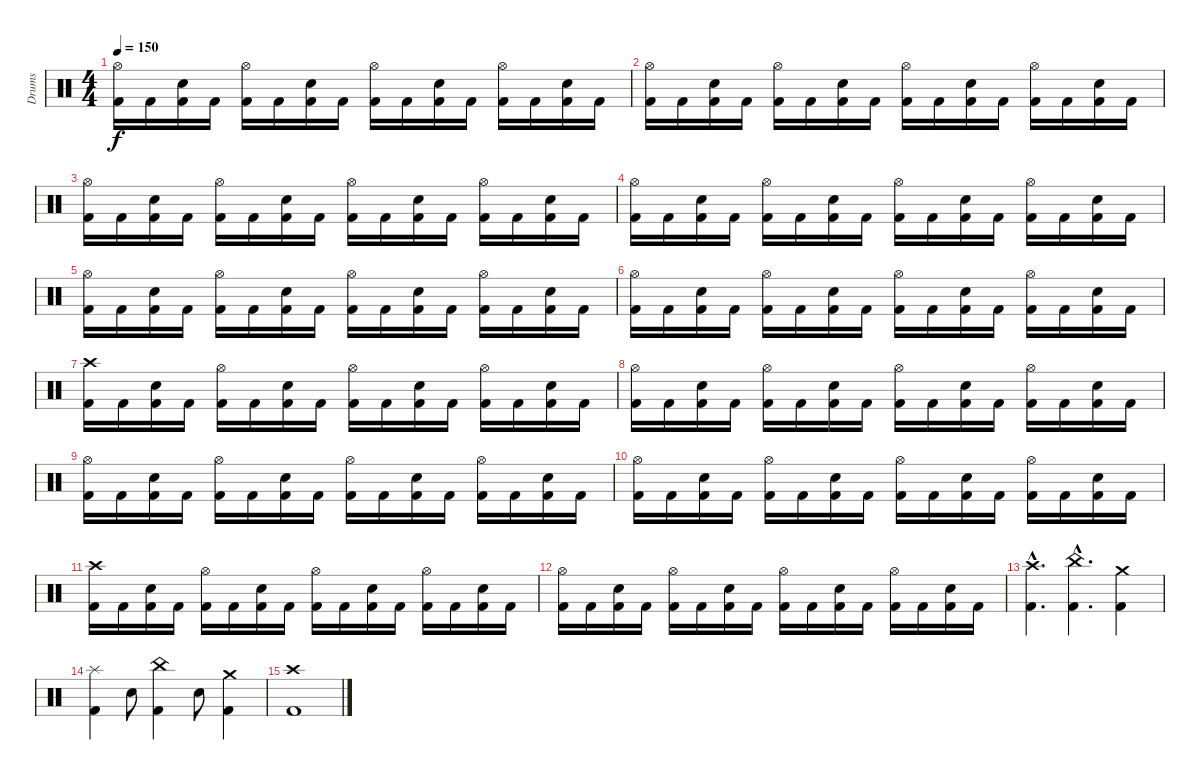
\track ("Drums" "Drums") {instrument percussion}
\staff {score}
\articulation defaults
\ts (4 4)
\tempo 150
\clef neutral
\ks c
("Hi-Hat (open)" "Kick (hit) 2").16{dy f} "Kick (hit) 2".16 ("Electric Snare (hit)" "Kick (hit) 2").16 "Kick (hit) 2".16 ("Hi-Hat (open)" "Kick (hit) 2").16 "Kick (hit) 2".16 ("Electric Snare (hit)" "Kick (hit) 2").16 "Kick (hit) 2".16 ("Hi-Hat (open)" "Kick (hit) 2").16 "Kick (hit) 2".16 ("Electric Snare (hit)" "Kick (hit) 2").16 "Kick (hit) 2".16 ("Hi-Hat (open)" "Kick (hit) 2").16 "Kick (hit) 2".16 ("Electric Snare (hit)" "Kick (hit) 2").16 "Kick (hit) 2".16 |
("Hi-Hat (open)" "Kick (hit) 2").16 "Kick (hit) 2".16 ("Electric Snare (hit)" "Kick (hit) 2").16 "Kick (hit) 2".16 ("Hi-Hat (open)" "Kick (hit) 2").16 "Kick (hit) 2".16 ("Electric Snare (hit)" "Kick (hit) 2").16 "Kick (hit) 2".16 ("Hi-Hat (open)" "Kick (hit) 2").16 "Kick (hit) 2".16 ("Electric Snare (hit)" "Kick (hit) 2").16 "Kick (hit) 2".16 ("Hi-Hat (open)" "Kick (hit) 2").16 "Kick (hit) 2".16 ("Electric Snare (hit)" "Kick (hit) 2").16 "Kick (hit) 2".16 |
("Hi-Hat (open)" "Kick (hit) 2").16 "Kick (hit) 2".16 ("Electric Snare (hit)" "Kick (hit) 2").16 "Kick (hit) 2".16 ("Hi-Hat (open)" "Kick (hit) 2").16 "Kick (hit) 2".16 ("Electric Snare (hit)" "Kick (hit) 2").16 "Kick (hit) 2".16 ("Hi-Hat (open)" "Kick (hit) 2").16 "Kick (hit) 2".16 ("Electric Snare (hit)" "Kick (hit) 2").16 "Kick (hit) 2".16 ("Hi-Hat (open)" "Kick (hit) 2").16 "Kick (hit) 2".16 ("Electric Snare (hit)" "Kick (hit) 2").16 "Kick (hit) 2".16 |
("Hi-Hat (open)" "Kick (hit) 2").16 "Kick (hit) 2".16 ("Electric Snare (hit)" "Kick (hit) 2").16 "Kick (hit) 2".16 ("Hi-Hat (open)" "Kick (hit) 2").16 "Kick (hit) 2".16 ("Electric Snare (hit)" "Kick (hit) 2").16 "Kick (hit) 2".16 ("Hi-Hat (open)" "Kick (hit) 2").16 "Kick (hit) 2".16 ("Electric Snare (hit)" "Kick (hit) 2").16 "Kick (hit) 2".16 ("Hi-Hat (open)" "Kick (hit) 2").16 "Kick (hit) 2".16 ("Electric Snare (hit)" "Kick (hit) 2").16 "Kick (hit) 2".16 |
("Hi-Hat (open)" "Kick (hit) 2").16 "Kick (hit) 2".16 ("Electric Snare (hit)" "Kick (hit) 2").16 "Kick (hit) 2".16 ("Hi-Hat (open)" "Kick (hit) 2").16 "Kick (hit) 2".16 ("Electric Snare (hit)" "Kick (hit) 2").16 "Kick (hit) 2".16 ("Hi-Hat (open)" "Kick (hit) 2").16 "Kick (hit) 2".16 ("Electric Snare (hit)" "Kick (hit) 2").16 "Kick (hit) 2".16 ("Hi-Hat (open)" "Kick (hit) 2").16 "Kick (hit) 2".16 ("Electric Snare (hit)" "Kick (hit) 2").16 "Kick (hit) 2".16 |
("Hi-Hat (open)" "Kick (hit) 2").16 "Kick (hit) 2".16 ("Electric Snare (hit)" "Kick (hit) 2").16 "Kick (hit) 2".16 ("Hi-Hat (open)" "Kick (hit) 2").16 "Kick (hit) 2".16 ("Electric Snare (hit)" "Kick (hit) 2").16 "Kick (hit) 2".16 ("Hi-Hat (open)" "Kick (hit) 2").16 "Kick (hit) 2".16 ("Electric Snare (hit)" "Kick (hit) 2").16 "Kick (hit) 2".16 ("Hi-Hat (open)" "Kick (hit) 2").16 "Kick (hit) 2".16 ("Electric Snare (hit)" "Kick (hit) 2").16 "Kick (hit) 2".16 |
("Crash high (hit)" "Kick (hit) 2").16 "Kick (hit) 2".16 ("Electric Snare (hit)" "Kick (hit) 2").16 "Kick (hit) 2".16 ("Hi-Hat (open)" "Kick (hit) 2").16 "Kick (hit) 2".16 ("Electric Snare (hit)" "Kick (hit) 2").16 "Kick (hit) 2".16 ("Hi-Hat (open)" "Kick (hit) 2").16 "Kick (hit) 2".16 ("Electric Snare (hit)" "Kick (hit) 2").16 "Kick (hit) 2".16 ("Hi-Hat (open)" "Kick (hit) 2").16 "Kick (hit) 2".16 ("Electric Snare (hit)" "Kick (hit) 2").16 "Kick (hit) 2".16 |
("Hi-Hat (open)" "Kick (hit) 2").16 "Kick (hit) 2".16 ("Electric Snare (hit)" "Kick (hit) 2").16 "Kick (hit) 2".16 ("Hi-Hat (open)" "Kick (hit) 2").16 "Kick (hit) 2".16 ("Electric Snare (hit)" "Kick (hit) 2").16 "Kick (hit) 2".16 ("Hi-Hat (open)" "Kick (hit) 2").16 "Kick (hit) 2".16 ("Electric Snare (hit)" "Kick (hit) 2").16 "Kick (hit) 2".16 ("Hi-Hat (open)" "Kick (hit) 2").16 "Kick (hit) 2".16 ("Electric Snare (hit)" "Kick (hit) 2").16 "Kick (hit) 2".16 |
("Hi-Hat (open)" "Kick (hit) 2").16 "Kick (hit) 2".16 ("Electric Snare (hit)" "Kick (hit) 2").16 "Kick (hit) 2".16 ("Hi-Hat (open)" "Kick (hit) 2").16 "Kick (hit) 2".16 ("Electric Snare (hit)" "Kick (hit) 2").16 "Kick (hit) 2".16 ("Hi-Hat (open)" "Kick (hit) 2").16 "Kick (hit) 2".16 ("Electric Snare (hit)" "Kick (hit) 2").16 "Kick (hit) 2".16 ("Hi-Hat (open)" "Kick (hit) 2").16 "Kick (hit) 2".16 ("Electric Snare (hit)" "Kick (hit) 2").16 "Kick (hit) 2".16 |
("Hi-Hat (open)" "Kick (hit) 2").16 "Kick (hit) 2".16 ("Electric Snare (hit)" "Kick (hit) 2").16 "Kick (hit) 2".16 ("Hi-Hat (open)" "Kick (hit) 2").16 "Kick (hit) 2".16 ("Electric Snare (hit)" "Kick (hit) 2").16 "Kick (hit) 2".16 ("Hi-Hat (open)" "Kick (hit) 2").16 "Kick (hit) 2".16 ("Electric Snare (hit)" "Kick (hit) 2").16 "Kick (hit) 2".16 ("Hi-Hat (open)" "Kick (hit) 2").16 "Kick (hit) 2".16 ("Electric Snare (hit)" "Kick (hit) 2").16 "Kick (hit) 2".16 |
("Crash high (hit)" "Kick (hit) 2").16 "Kick (hit) 2".16 ("Electric Snare (hit)" "Kick (hit) 2").16 "Kick (hit) 2".16 ("Hi-Hat (open)" "Kick (hit) 2").16 "Kick (hit) 2".16 ("Electric Snare (hit)" "Kick (hit) 2").16 "Kick (hit) 2".16 ("Hi-Hat (open)" "Kick (hit) 2").16 "Kick (hit) 2".16 ("Electric Snare (hit)" "Kick (hit) 2").16 "Kick (hit) 2".16 ("Hi-Hat (open)" "Kick (hit) 2").16 "Kick (hit) 2".16 ("Electric Snare (hit)" "Kick (hit) 2").16 "Kick (hit) 2".16 |
("Hi-Hat (open)" "Kick (hit) 2").16 "Kick (hit) 2".16 ("Electric Snare (hit)" "Kick (hit) 2").16 "Kick (hit) 2".16 ("Hi-Hat (open)" "Kick (hit) 2").16 "Kick (hit) 2".16 ("Electric Snare (hit)" "Kick (hit) 2").16 "Kick (hit) 2".16 ("Hi-Hat (open)" "Kick (hit) 2").16 "Kick (hit) 2".16 ("Electric Snare (hit)" "Kick (hit) 2").16 "Kick (hit) 2".16 ("Hi-Hat (open)" "Kick (hit) 2").16 "Kick (hit) 2".16 ("Electric Snare (hit)" "Kick (hit) 2").16 "Kick (hit) 2".16 |
("Crash high (hit)"{hac} "Kick (hit) 2"{hac}).4{d} ("China (hit)"{hac} "Kick (hit) 2"{hac}).4{d} ("Crash medium (hit)" "Kick (hit) 2").4 |
("Splash (hit)" "Kick (hit) 2").4 "Electric Snare (hit)".8 ("China (hit)" "Kick (hit) 2").4 "Electric Snare (hit)".8 ("Crash medium (hit)" "Kick (hit) 2").4 |
("Crash high (hit)" "Kick (hit) 2").1
